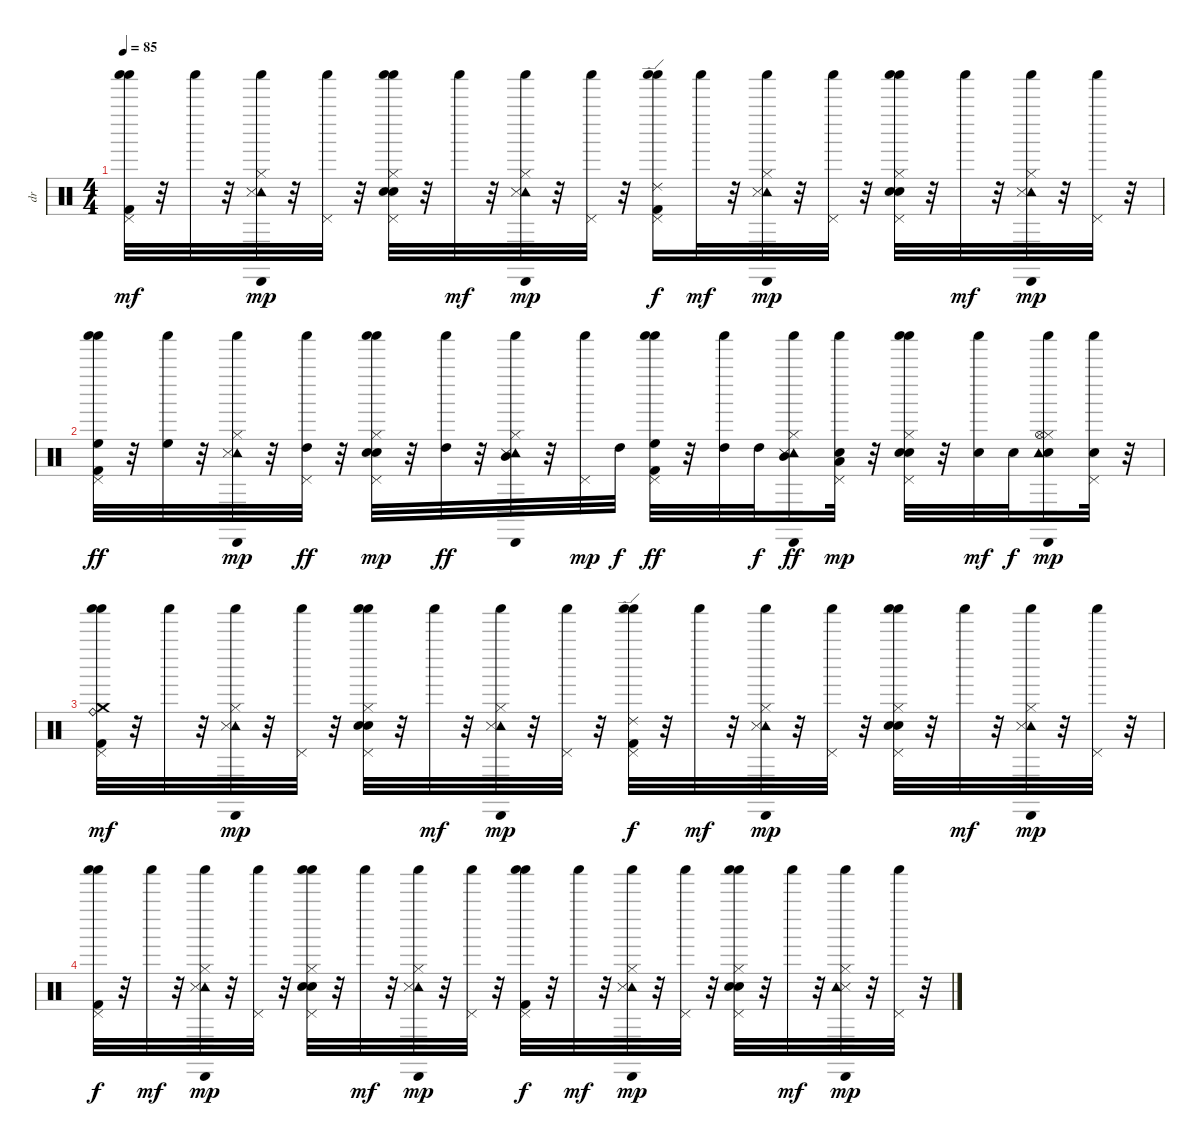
\track ("dr" "dr") {instrument percussion}
\staff {score}
\articulation defaults
\ts (4 4)
\tempo 85
\clef neutral
\ks c
("Pedal Hi-Hat (hit)" "Shaker (hit)" "Shaker (hit)" "Kick (hit) 2").32{dy mf} r.32 "Shaker (hit)".32 r.32 ("Hi-Hat (closed)" "Cabasa (hit)" "Tambourine (hit)" "Shaker (hit)" "Snare (side stick) 3").32{dy mp} r.32 ("Pedal Hi-Hat (hit)" "Shaker (hit)").32 r.32 ("Electric Snare (hit)" "Pedal Hi-Hat (hit)" "Shaker (hit)" "Shaker (hit)" "Hi-Hat (closed)" "Snare (hit) 2").32 r.32 "Shaker (hit)".32{dy mf} r.32 ("Hi-Hat (closed)" "Tambourine (hit)" "Cabasa (hit)" "Shaker (hit)" "Snare (side stick) 3").32{dy mp} r.32 ("Pedal Hi-Hat (hit)" "Shaker (hit)").32 r.32 ("Pedal Hi-Hat (hit)" "Shaker (hit)" "Shaker (hit)" "Kick (hit) 2" "Ride (edge) 2").16{dy f} "Shaker (hit)".32{dy mf} r.32 ("Hi-Hat (closed)" "Cabasa (hit)" "Tambourine (hit)" "Shaker (hit)" "Snare (side stick) 3").32{dy mp} r.32 ("Pedal Hi-Hat (hit)" "Shaker (hit)").32 r.32 ("Electric Snare (hit)" "Pedal Hi-Hat (hit)" "Shaker (hit)" "Shaker (hit)" "Hi-Hat (closed)" "Snare (hit) 2").32 r.32 "Shaker (hit)".32{dy mf} r.32 ("Hi-Hat (closed)" "Cabasa (hit)" "Tambourine (hit)" "Shaker (hit)" "Snare (side stick) 3").32{dy mp} r.32 ("Pedal Hi-Hat (hit)" "Shaker (hit)").32 r.32 |
("Pedal Hi-Hat (hit)" "Shaker (hit)" "Shaker (hit)" "Kick (hit) 2" "High Floor Tom (hit)").32{dy ff} r.32 ("Shaker (hit)" "High Floor Tom (hit)").32 r.32 ("Hi-Hat (closed)" "Cabasa (hit)" "Tambourine (hit)" "Shaker (hit)" "Snare (side stick) 3").32{dy mp} r.32 ("Pedal Hi-Hat (hit)" "Shaker (hit)" "High Tom (hit)").32{dy ff} r.32 ("Pedal Hi-Hat (hit)" "Shaker (hit)" "Shaker (hit)" "Hi-Hat (closed)" "Electric Snare (hit)" "Snare (hit) 2").32{dy mp} r.32 ("Shaker (hit)" "High Tom (hit)").32{dy ff} r.32 ("Hi-Hat (closed)" "Cabasa (hit)" "Tambourine (hit)" "Shaker (hit)" "Mid Tom (hit)" "Snare (side stick) 3").32 r.32 ("Shaker (hit)" "Pedal Hi-Hat (hit)").32{dy mp} "High Tom (hit)".32{dy f} ("Shaker (hit)" "Shaker (hit)" "Kick (hit) 2" "Pedal Hi-Hat (hit)" "High Floor Tom (hit)").32{dy ff} r.32 ("Shaker (hit)" "High Tom (hit)").32 "High Tom (hit)".32{dy f} ("Hi-Hat (closed)" "Cabasa (hit)" "Tambourine (hit)" "Shaker (hit)" "Mid Tom (hit)" "Snare (side stick) 3").16{dy ff} ("Shaker (hit)" "Pedal Hi-Hat (hit)" "Low Tom (hit)" "Snare (hit) 2").32{dy mp} r.32 ("Pedal Hi-Hat (hit)" "Shaker (hit)" "Shaker (hit)" "Hi-Hat (closed)" "Electric Snare (hit)" "Snare (hit) 2").32{volume 11} r.32 ("Shaker (hit)" "Snare (hit) 2").32{dy mf} "Snare (hit) 2".32{dy f} ("Snare (hit) 2" "Hi-Hat (closed)" "Cabasa (hit)" "Tambourine (hit)" "Shaker (hit)" "Hi-Hat (open)").16{dy mp} ("Pedal Hi-Hat (hit)" "Shaker (hit)" "Snare (hit) 2").32 r.32 |
("Kick (hit) 2" "Ride (bell)" "Crash medium (hit)" "Pedal Hi-Hat (hit)" "Shaker (hit)" "Shaker (hit)").32{dy mf} r.32 "Shaker (hit)".32 r.32 ("Hi-Hat (closed)" "Tambourine (hit)" "Cabasa (hit)" "Shaker (hit)" "Snare (side stick) 3").32{dy mp} r.32 ("Pedal Hi-Hat (hit)" "Shaker (hit)").32 r.32 ("Electric Snare (hit)" "Pedal Hi-Hat (hit)" "Shaker (hit)" "Shaker (hit)" "Hi-Hat (closed)" "Snare (hit) 2").32 r.32 "Shaker (hit)".32{dy mf} r.32 ("Hi-Hat (closed)" "Tambourine (hit)" "Cabasa (hit)" "Shaker (hit)" "Snare (side stick) 3").32{dy mp} r.32 ("Pedal Hi-Hat (hit)" "Shaker (hit)").32 r.32 ("Pedal Hi-Hat (hit)" "Shaker (hit)" "Shaker (hit)" "Kick (hit) 2" "Ride (edge) 2").32{dy f} r.32 "Shaker (hit)".32{dy mf} r.32 ("Hi-Hat (closed)" "Tambourine (hit)" "Cabasa (hit)" "Shaker (hit)" "Snare (side stick) 3").32{dy mp} r.32 ("Pedal Hi-Hat (hit)" "Shaker (hit)").32 r.32 ("Electric Snare (hit)" "Pedal Hi-Hat (hit)" "Shaker (hit)" "Shaker (hit)" "Hi-Hat (closed)" "Snare (hit) 2").32 r.32 "Shaker (hit)".32{dy mf} r.32 ("Hi-Hat (closed)" "Tambourine (hit)" "Cabasa (hit)" "Shaker (hit)" "Snare (side stick) 3").32{dy mp} r.32 ("Pedal Hi-Hat (hit)" "Shaker (hit)").32 r.32 |
("Pedal Hi-Hat (hit)" "Shaker (hit)" "Shaker (hit)" "Kick (hit) 2").32{dy f} r.32 "Shaker (hit)".32{dy mf} r.32 ("Hi-Hat (closed)" "Tambourine (hit)" "Cabasa (hit)" "Shaker (hit)" "Snare (side stick) 3").32{dy mp} r.32 ("Pedal Hi-Hat (hit)" "Shaker (hit)").32 r.32 ("Electric Snare (hit)" "Pedal Hi-Hat (hit)" "Shaker (hit)" "Shaker (hit)" "Hi-Hat (closed)" "Snare (hit) 2").32 r.32 "Shaker (hit)".32{dy mf} r.32 ("Hi-Hat (closed)" "Tambourine (hit)" "Cabasa (hit)" "Shaker (hit)" "Snare (side stick) 3").32{dy mp} r.32 ("Pedal Hi-Hat (hit)" "Shaker (hit)").32 r.32 ("Pedal Hi-Hat (hit)" "Shaker (hit)" "Shaker (hit)" "Kick (hit) 2").32{dy f} r.32 "Shaker (hit)".32{dy mf} r.32 ("Hi-Hat (closed)" "Tambourine (hit)" "Cabasa (hit)" "Shaker (hit)" "Snare (side stick) 3").32{dy mp} r.32 ("Pedal Hi-Hat (hit)" "Shaker (hit)").32 r.32 ("Electric Snare (hit)" "Pedal Hi-Hat (hit)" "Shaker (hit)" "Shaker (hit)" "Hi-Hat (closed)" "Snare (hit) 2").32 r.32 "Shaker (hit)".32{dy mf} r.32 ("Hi-Hat (closed)" "Cabasa (hit)" "Shaker (hit)" "Snare (side stick) 3" "Tambourine (hit)").32{dy mp} r.32 ("Pedal Hi-Hat (hit)" "Shaker (hit)").32 r.32
